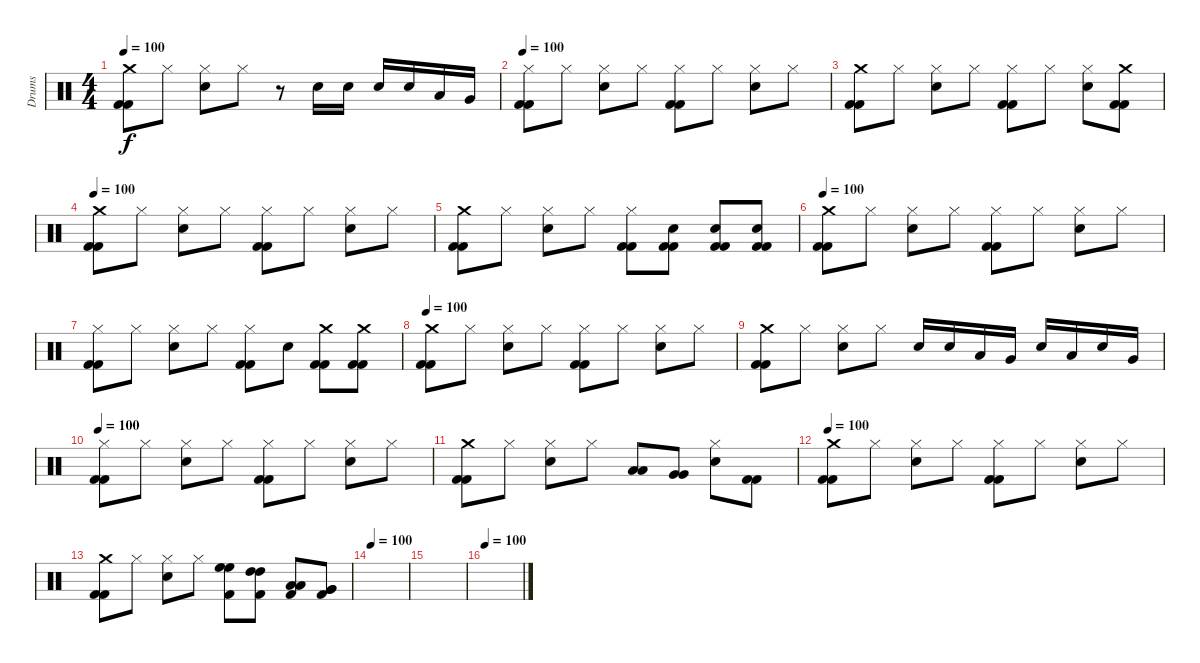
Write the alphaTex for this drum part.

\track ("Drums" "Drums") {instrument percussion}
\staff {score}
\articulation defaults
\ts (4 4)
\tempo 100
\clef neutral
\ks c
("Crash medium (hit)" "Kick (hit) 2" "Kick (hit) 2").8{dy f} "Hi-Hat (closed)".8 ("Electric Snare (hit)" "Hi-Hat (closed)").8 "Hi-Hat (closed)".8 r.8 "Electric Snare (hit)".16 "Electric Snare (hit)".16 "Electric Snare (hit)".16 "Electric Snare (hit)".16 "Low Tom (hit)".16 "Very Low Tom (hit)".16 |
\tempo 100
("Hi-Hat (closed)" "Kick (hit) 2" "Kick (hit) 2").8 "Hi-Hat (closed)".8 ("Electric Snare (hit)" "Hi-Hat (closed)").8 "Hi-Hat (closed)".8 ("Hi-Hat (closed)" "Kick (hit) 2" "Kick (hit) 2").8 "Hi-Hat (closed)".8 ("Hi-Hat (closed)" "Electric Snare (hit)").8 "Hi-Hat (closed)".8 |
("Crash medium (hit)" "Kick (hit) 2" "Kick (hit) 2").8 "Hi-Hat (closed)".8 ("Electric Snare (hit)" "Hi-Hat (closed)").8 "Hi-Hat (closed)".8 ("Hi-Hat (closed)" "Kick (hit) 2" "Kick (hit) 2").8 "Hi-Hat (closed)".8 ("Hi-Hat (closed)" "Electric Snare (hit)").8 ("Kick (hit) 2" "Kick (hit) 2" "Crash medium (hit)").8 |
\tempo 100
("Crash medium (hit)" "Kick (hit) 2" "Kick (hit) 2").8 "Hi-Hat (closed)".8 ("Electric Snare (hit)" "Hi-Hat (closed)").8 "Hi-Hat (closed)".8 ("Hi-Hat (closed)" "Kick (hit) 2" "Kick (hit) 2").8 "Hi-Hat (closed)".8 ("Hi-Hat (closed)" "Electric Snare (hit)").8 "Hi-Hat (closed)".8 |
("Crash medium (hit)" "Kick (hit) 2" "Kick (hit) 2").8 "Hi-Hat (closed)".8 ("Electric Snare (hit)" "Hi-Hat (closed)").8 "Hi-Hat (closed)".8 ("Hi-Hat (closed)" "Kick (hit) 2" "Kick (hit) 2").8 ("Kick (hit) 2" "Kick (hit) 2" "Electric Snare (hit)").8 ("Electric Snare (hit)" "Kick (hit) 2" "Kick (hit) 2").8 ("Kick (hit) 2" "Kick (hit) 2" "Electric Snare (hit)").8 |
\tempo 100
("Crash medium (hit)" "Kick (hit) 2" "Kick (hit) 2").8 "Hi-Hat (closed)".8 ("Electric Snare (hit)" "Hi-Hat (closed)").8 "Hi-Hat (closed)".8 ("Hi-Hat (closed)" "Kick (hit) 2" "Kick (hit) 2").8 "Hi-Hat (closed)".8 ("Hi-Hat (closed)" "Electric Snare (hit)").8 "Hi-Hat (closed)".8 |
("Hi-Hat (closed)" "Kick (hit) 2" "Kick (hit) 2").8 "Hi-Hat (closed)".8 ("Electric Snare (hit)" "Hi-Hat (closed)").8 "Hi-Hat (closed)".8 ("Hi-Hat (closed)" "Kick (hit) 2" "Kick (hit) 2").8 "Electric Snare (hit)".8 ("Kick (hit) 2" "Kick (hit) 2" "Crash medium (hit)").8 ("Crash medium (hit)" "Kick (hit) 2" "Kick (hit) 2").8 |
\tempo 100
("Crash medium (hit)" "Kick (hit) 2" "Kick (hit) 2").8 "Hi-Hat (closed)".8 ("Electric Snare (hit)" "Hi-Hat (closed)").8 "Hi-Hat (closed)".8 ("Hi-Hat (closed)" "Kick (hit) 2" "Kick (hit) 2").8 "Hi-Hat (closed)".8 ("Hi-Hat (closed)" "Electric Snare (hit)").8 "Hi-Hat (closed)".8 |
("Crash medium (hit)" "Kick (hit) 2" "Kick (hit) 2").8 "Hi-Hat (closed)".8 ("Electric Snare (hit)" "Hi-Hat (closed)").8 "Hi-Hat (closed)".8 "Electric Snare (hit)".16 "Electric Snare (hit)".16 "Low Tom (hit)".16 "Very Low Tom (hit)".16 "Electric Snare (hit)".16 "Low Tom (hit)".16 "Electric Snare (hit)".16 "Very Low Tom (hit)".16 |
\tempo 100
("Hi-Hat (closed)" "Kick (hit) 2" "Kick (hit) 2").8 "Hi-Hat (closed)".8 ("Electric Snare (hit)" "Hi-Hat (closed)").8 "Hi-Hat (closed)".8 ("Hi-Hat (closed)" "Kick (hit) 2" "Kick (hit) 2").8 "Hi-Hat (closed)".8 ("Hi-Hat (closed)" "Electric Snare (hit)").8 "Hi-Hat (closed)".8 |
("Crash medium (hit)" "Kick (hit) 2" "Kick (hit) 2").8 "Hi-Hat (closed)".8 ("Electric Snare (hit)" "Hi-Hat (closed)").8 "Hi-Hat (closed)".8 ("Low Tom (hit)" "Low Tom (hit)").8 ("Very Low Tom (hit)" "Very Low Tom (hit)").8 ("Hi-Hat (closed)" "Electric Snare (hit)").8 ("Kick (hit) 2" "Kick (hit) 2").8 |
\tempo 100
("Kick (hit) 2" "Crash medium (hit)" "Kick (hit) 2").8 "Hi-Hat (closed)".8 ("Electric Snare (hit)" "Hi-Hat (closed)").8 "Hi-Hat (closed)".8 ("Hi-Hat (closed)" "Kick (hit) 2" "Kick (hit) 2").8 "Hi-Hat (closed)".8 ("Hi-Hat (closed)" "Electric Snare (hit)").8 "Hi-Hat (closed)".8 |
("Crash medium (hit)" "Kick (hit) 2" "Kick (hit) 2").8 "Hi-Hat (closed)".8 ("Electric Snare (hit)" "Hi-Hat (closed)").8 "Hi-Hat (closed)".8 ("High Floor Tom (hit)" "High Floor Tom (hit)" "Kick (hit) 2").8 ("High Tom (hit)" "High Tom (hit)" "Kick (hit) 2").8 ("Kick (hit) 2" "Low Tom (hit)" "Low Tom (hit)").8 ("Very Low Tom (hit)" "Very Low Tom (hit)" "Kick (hit) 2").8 |
\tempo 100
|
|
\tempo 100
